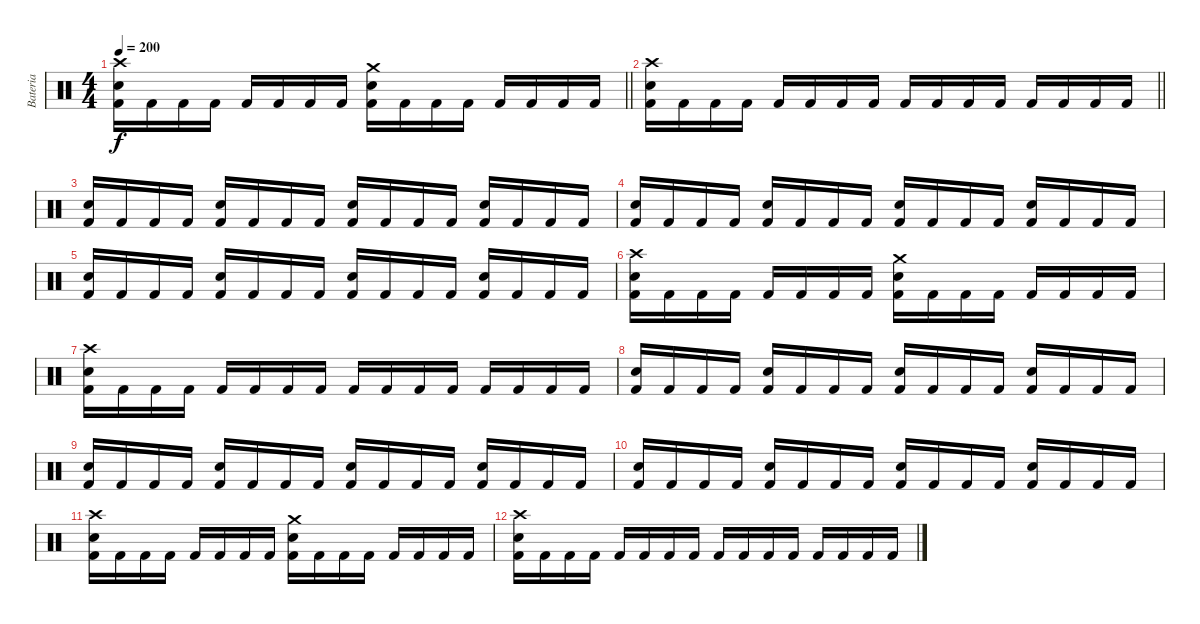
\track ("Bateria" "Bateria") {instrument percussion}
\staff {score}
\articulation defaults
\ts (4 4)
\tempo 200
\clef neutral
\barLineRight lightlight
\ks c
("Crash high (hit)" "Electric Snare (hit)" "Kick (hit) 2").16{dy f} "Kick (hit) 2".16 "Kick (hit) 2".16 "Kick (hit) 2".16 "Kick (hit) 2".16 "Kick (hit) 2".16 "Kick (hit) 2".16 "Kick (hit) 2".16 ("Crash medium (hit)" "Electric Snare (hit)" "Kick (hit) 2").16 "Kick (hit) 2".16 "Kick (hit) 2".16 "Kick (hit) 2".16 "Kick (hit) 2".16 "Kick (hit) 2".16 "Kick (hit) 2".16 "Kick (hit) 2".16 |
\barLineRight lightlight
("Crash high (hit)" "Electric Snare (hit)" "Kick (hit) 2").16 "Kick (hit) 2".16 "Kick (hit) 2".16 "Kick (hit) 2".16 "Kick (hit) 2".16 "Kick (hit) 2".16 "Kick (hit) 2".16 "Kick (hit) 2".16{volume 2} "Kick (hit) 2".16 "Kick (hit) 2".16 "Kick (hit) 2".16 "Kick (hit) 2".16 "Kick (hit) 2".16 "Kick (hit) 2".16 "Kick (hit) 2".16 "Kick (hit) 2".16 |
("Electric Snare (hit)" "Kick (hit) 2").16 "Kick (hit) 2".16 "Kick (hit) 2".16 "Kick (hit) 2".16 ("Electric Snare (hit)" "Kick (hit) 2").16 "Kick (hit) 2".16 "Kick (hit) 2".16 "Kick (hit) 2".16 ("Electric Snare (hit)" "Kick (hit) 2").16 "Kick (hit) 2".16 "Kick (hit) 2".16 "Kick (hit) 2".16 ("Electric Snare (hit)" "Kick (hit) 2").16 "Kick (hit) 2".16 "Kick (hit) 2".16 "Kick (hit) 2".16 |
("Electric Snare (hit)" "Kick (hit) 2").16 "Kick (hit) 2".16 "Kick (hit) 2".16 "Kick (hit) 2".16 ("Electric Snare (hit)" "Kick (hit) 2").16 "Kick (hit) 2".16 "Kick (hit) 2".16 "Kick (hit) 2".16 ("Electric Snare (hit)" "Kick (hit) 2").16 "Kick (hit) 2".16 "Kick (hit) 2".16 "Kick (hit) 2".16 ("Electric Snare (hit)" "Kick (hit) 2").16 "Kick (hit) 2".16 "Kick (hit) 2".16 "Kick (hit) 2".16 |
("Electric Snare (hit)" "Kick (hit) 2").16 "Kick (hit) 2".16 "Kick (hit) 2".16 "Kick (hit) 2".16 ("Electric Snare (hit)" "Kick (hit) 2").16 "Kick (hit) 2".16 "Kick (hit) 2".16 "Kick (hit) 2".16 ("Electric Snare (hit)" "Kick (hit) 2").16 "Kick (hit) 2".16 "Kick (hit) 2".16 "Kick (hit) 2".16 ("Electric Snare (hit)" "Kick (hit) 2").16 "Kick (hit) 2".16 "Kick (hit) 2".16 "Kick (hit) 2".16 |
("Crash high (hit)" "Electric Snare (hit)" "Kick (hit) 2").16 "Kick (hit) 2".16 "Kick (hit) 2".16 "Kick (hit) 2".16 "Kick (hit) 2".16 "Kick (hit) 2".16 "Kick (hit) 2".16 "Kick (hit) 2".16 ("Crash medium (hit)" "Electric Snare (hit)" "Kick (hit) 2").16 "Kick (hit) 2".16 "Kick (hit) 2".16 "Kick (hit) 2".16 "Kick (hit) 2".16 "Kick (hit) 2".16 "Kick (hit) 2".16 "Kick (hit) 2".16 |
("Crash high (hit)" "Electric Snare (hit)" "Kick (hit) 2").16 "Kick (hit) 2".16 "Kick (hit) 2".16 "Kick (hit) 2".16 "Kick (hit) 2".16 "Kick (hit) 2".16 "Kick (hit) 2".16 "Kick (hit) 2".16 "Kick (hit) 2".16 "Kick (hit) 2".16 "Kick (hit) 2".16 "Kick (hit) 2".16 "Kick (hit) 2".16 "Kick (hit) 2".16 "Kick (hit) 2".16 "Kick (hit) 2".16 |
("Electric Snare (hit)" "Kick (hit) 2").16 "Kick (hit) 2".16 "Kick (hit) 2".16 "Kick (hit) 2".16 ("Electric Snare (hit)" "Kick (hit) 2").16 "Kick (hit) 2".16 "Kick (hit) 2".16 "Kick (hit) 2".16 ("Electric Snare (hit)" "Kick (hit) 2").16 "Kick (hit) 2".16 "Kick (hit) 2".16 "Kick (hit) 2".16 ("Electric Snare (hit)" "Kick (hit) 2").16 "Kick (hit) 2".16 "Kick (hit) 2".16 "Kick (hit) 2".16 |
("Electric Snare (hit)" "Kick (hit) 2").16{volume 0} "Kick (hit) 2".16 "Kick (hit) 2".16 "Kick (hit) 2".16 ("Electric Snare (hit)" "Kick (hit) 2").16 "Kick (hit) 2".16 "Kick (hit) 2".16 "Kick (hit) 2".16 ("Electric Snare (hit)" "Kick (hit) 2").16 "Kick (hit) 2".16 "Kick (hit) 2".16 "Kick (hit) 2".16 ("Electric Snare (hit)" "Kick (hit) 2").16 "Kick (hit) 2".16 "Kick (hit) 2".16 "Kick (hit) 2".16 |
("Electric Snare (hit)" "Kick (hit) 2").16 "Kick (hit) 2".16 "Kick (hit) 2".16 "Kick (hit) 2".16 ("Electric Snare (hit)" "Kick (hit) 2").16 "Kick (hit) 2".16 "Kick (hit) 2".16 "Kick (hit) 2".16 ("Electric Snare (hit)" "Kick (hit) 2").16 "Kick (hit) 2".16 "Kick (hit) 2".16 "Kick (hit) 2".16 ("Electric Snare (hit)" "Kick (hit) 2").16 "Kick (hit) 2".16 "Kick (hit) 2".16 "Kick (hit) 2".16 |
("Crash high (hit)" "Electric Snare (hit)" "Kick (hit) 2").16 "Kick (hit) 2".16 "Kick (hit) 2".16 "Kick (hit) 2".16 "Kick (hit) 2".16 "Kick (hit) 2".16 "Kick (hit) 2".16 "Kick (hit) 2".16 ("Crash medium (hit)" "Electric Snare (hit)" "Kick (hit) 2").16 "Kick (hit) 2".16 "Kick (hit) 2".16 "Kick (hit) 2".16 "Kick (hit) 2".16 "Kick (hit) 2".16 "Kick (hit) 2".16 "Kick (hit) 2".16 |
("Crash high (hit)" "Electric Snare (hit)" "Kick (hit) 2").16 "Kick (hit) 2".16 "Kick (hit) 2".16 "Kick (hit) 2".16 "Kick (hit) 2".16 "Kick (hit) 2".16 "Kick (hit) 2".16 "Kick (hit) 2".16 "Kick (hit) 2".16 "Kick (hit) 2".16 "Kick (hit) 2".16 "Kick (hit) 2".16 "Kick (hit) 2".16 "Kick (hit) 2".16 "Kick (hit) 2".16 "Kick (hit) 2".16
